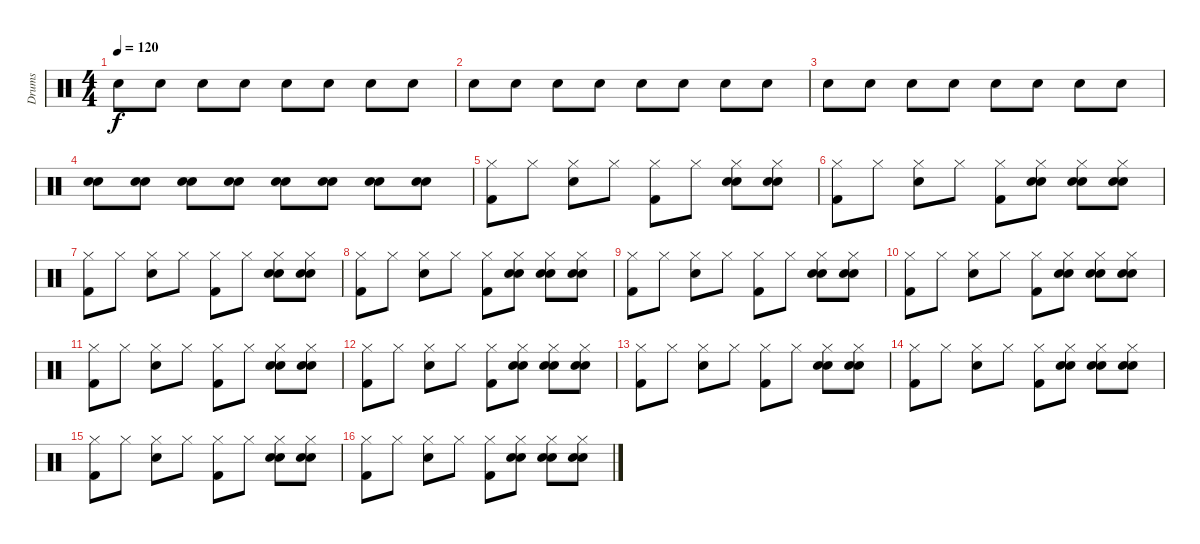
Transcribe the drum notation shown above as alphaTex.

\track ("Drums" "Drums") {instrument percussion}
\staff {score}
\articulation defaults
\ts (4 4)
\tempo 120
\clef neutral
\ks c "Electric Snare (hit)".8{dy f} "Electric Snare (hit)".8 "Electric Snare (hit)".8 "Electric Snare (hit)".8 "Electric Snare (hit)".8 "Electric Snare (hit)".8 "Electric Snare (hit)".8 "Electric Snare (hit)".8
|
"Electric Snare (hit)".8 "Electric Snare (hit)".8 "Electric Snare (hit)".8 "Electric Snare (hit)".8 "Electric Snare (hit)".8 "Electric Snare (hit)".8 "Electric Snare (hit)".8 "Electric Snare (hit)".8 |
"Electric Snare (hit)".8 "Electric Snare (hit)".8 "Electric Snare (hit)".8 "Electric Snare (hit)".8 "Electric Snare (hit)".8 "Electric Snare (hit)".8 "Electric Snare (hit)".8 "Electric Snare (hit)".8 |
("Electric Snare (hit)" "Electric Snare (hit)").8 ("Electric Snare (hit)" "Electric Snare (hit)").8 ("Electric Snare (hit)" "Electric Snare (hit)").8 ("Electric Snare (hit)" "Electric Snare (hit)").8 ("Electric Snare (hit)" "Electric Snare (hit)").8 ("Electric Snare (hit)" "Electric Snare (hit)").8 ("Electric Snare (hit)" "Electric Snare (hit)").8 ("Electric Snare (hit)" "Electric Snare (hit)").8 |
("Hi-Hat (closed)" "Kick (hit) 2").8 "Hi-Hat (closed)".8 ("Hi-Hat (closed)" "Electric Snare (hit)").8 "Hi-Hat (closed)".8 ("Hi-Hat (closed)" "Kick (hit) 2").8 "Hi-Hat (closed)".8 ("Hi-Hat (closed)" "Hand Clap (hit)" "Electric Snare (hit)").8 ("Hi-Hat (closed)" "Hand Clap (hit)" "Electric Snare (hit)").8 |
("Hi-Hat (closed)" "Kick (hit) 2").8 "Hi-Hat (closed)".8 ("Hi-Hat (closed)" "Electric Snare (hit)").8 "Hi-Hat (closed)".8 ("Hi-Hat (closed)" "Kick (hit) 2").8 ("Hi-Hat (closed)" "Hand Clap (hit)" "Electric Snare (hit)").8 ("Hi-Hat (closed)" "Hand Clap (hit)" "Electric Snare (hit)").8 ("Hi-Hat (closed)" "Hand Clap (hit)" "Electric Snare (hit)").8 |
("Hi-Hat (closed)" "Kick (hit) 2").8 "Hi-Hat (closed)".8 ("Hi-Hat (closed)" "Electric Snare (hit)").8 "Hi-Hat (closed)".8 ("Hi-Hat (closed)" "Kick (hit) 2").8 "Hi-Hat (closed)".8 ("Hi-Hat (closed)" "Hand Clap (hit)" "Electric Snare (hit)").8 ("Hi-Hat (closed)" "Hand Clap (hit)" "Electric Snare (hit)").8 |
("Hi-Hat (closed)" "Kick (hit) 2").8 "Hi-Hat (closed)".8 ("Hi-Hat (closed)" "Electric Snare (hit)").8 "Hi-Hat (closed)".8 ("Hi-Hat (closed)" "Kick (hit) 2").8 ("Hi-Hat (closed)" "Hand Clap (hit)" "Electric Snare (hit)").8 ("Hi-Hat (closed)" "Hand Clap (hit)" "Electric Snare (hit)").8 ("Hi-Hat (closed)" "Hand Clap (hit)" "Electric Snare (hit)").8 |
("Hi-Hat (closed)" "Kick (hit) 2").8 "Hi-Hat (closed)".8 ("Hi-Hat (closed)" "Electric Snare (hit)").8 "Hi-Hat (closed)".8 ("Hi-Hat (closed)" "Kick (hit) 2").8 "Hi-Hat (closed)".8 ("Hi-Hat (closed)" "Hand Clap (hit)" "Electric Snare (hit)").8 ("Hi-Hat (closed)" "Hand Clap (hit)" "Electric Snare (hit)").8 |
("Hi-Hat (closed)" "Kick (hit) 2").8 "Hi-Hat (closed)".8 ("Hi-Hat (closed)" "Electric Snare (hit)").8 "Hi-Hat (closed)".8 ("Hi-Hat (closed)" "Kick (hit) 2").8 ("Hi-Hat (closed)" "Hand Clap (hit)" "Electric Snare (hit)").8 ("Hi-Hat (closed)" "Hand Clap (hit)" "Electric Snare (hit)").8 ("Hi-Hat (closed)" "Hand Clap (hit)" "Electric Snare (hit)").8 |
("Hi-Hat (closed)" "Kick (hit) 2").8 "Hi-Hat (closed)".8 ("Hi-Hat (closed)" "Electric Snare (hit)").8 "Hi-Hat (closed)".8 ("Hi-Hat (closed)" "Kick (hit) 2").8 "Hi-Hat (closed)".8 ("Hi-Hat (closed)" "Hand Clap (hit)" "Electric Snare (hit)").8 ("Hi-Hat (closed)" "Hand Clap (hit)" "Electric Snare (hit)").8 |
("Hi-Hat (closed)" "Kick (hit) 2").8 "Hi-Hat (closed)".8 ("Hi-Hat (closed)" "Electric Snare (hit)").8 "Hi-Hat (closed)".8 ("Hi-Hat (closed)" "Kick (hit) 2").8 ("Hi-Hat (closed)" "Hand Clap (hit)" "Electric Snare (hit)").8 ("Hi-Hat (closed)" "Hand Clap (hit)" "Electric Snare (hit)").8 ("Hi-Hat (closed)" "Hand Clap (hit)" "Electric Snare (hit)").8 |
("Hi-Hat (closed)" "Kick (hit) 2").8 "Hi-Hat (closed)".8 ("Hi-Hat (closed)" "Electric Snare (hit)").8 "Hi-Hat (closed)".8 ("Hi-Hat (closed)" "Kick (hit) 2").8 "Hi-Hat (closed)".8 ("Hi-Hat (closed)" "Hand Clap (hit)" "Electric Snare (hit)").8 ("Hi-Hat (closed)" "Hand Clap (hit)" "Electric Snare (hit)").8 |
("Hi-Hat (closed)" "Kick (hit) 2").8 "Hi-Hat (closed)".8 ("Hi-Hat (closed)" "Electric Snare (hit)").8 "Hi-Hat (closed)".8 ("Hi-Hat (closed)" "Kick (hit) 2").8 ("Hi-Hat (closed)" "Hand Clap (hit)" "Electric Snare (hit)").8 ("Hi-Hat (closed)" "Hand Clap (hit)" "Electric Snare (hit)").8 ("Hi-Hat (closed)" "Hand Clap (hit)" "Electric Snare (hit)").8 |
("Hi-Hat (closed)" "Kick (hit) 2").8 "Hi-Hat (closed)".8 ("Hi-Hat (closed)" "Electric Snare (hit)").8 "Hi-Hat (closed)".8 ("Hi-Hat (closed)" "Kick (hit) 2").8 "Hi-Hat (closed)".8 ("Hi-Hat (closed)" "Hand Clap (hit)" "Electric Snare (hit)").8 ("Hi-Hat (closed)" "Hand Clap (hit)" "Electric Snare (hit)").8 |
("Hi-Hat (closed)" "Kick (hit) 2").8 "Hi-Hat (closed)".8 ("Hi-Hat (closed)" "Electric Snare (hit)").8 "Hi-Hat (closed)".8 ("Hi-Hat (closed)" "Kick (hit) 2").8 ("Hi-Hat (closed)" "Hand Clap (hit)" "Electric Snare (hit)").8 ("Hi-Hat (closed)" "Hand Clap (hit)" "Electric Snare (hit)").8 ("Hi-Hat (closed)" "Hand Clap (hit)" "Electric Snare (hit)").8
